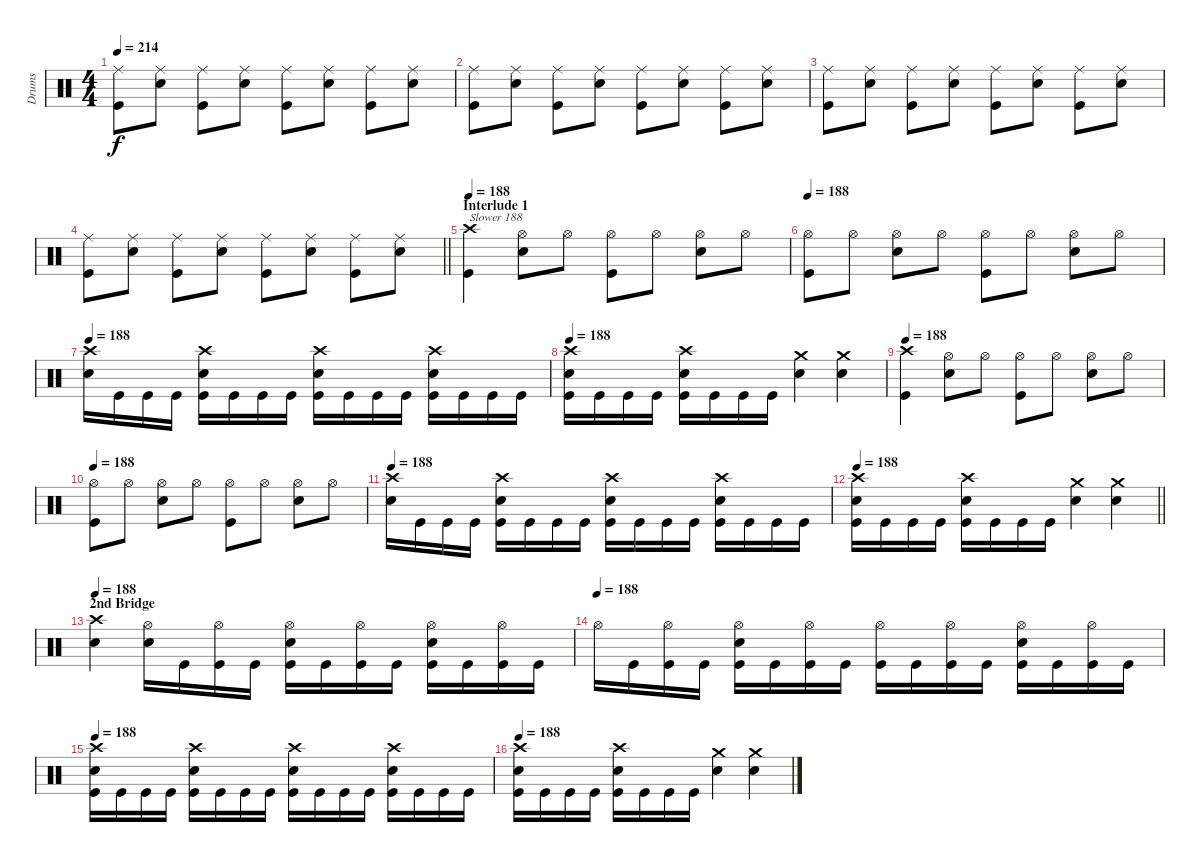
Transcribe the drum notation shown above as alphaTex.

\track ("Drums" "Drums") {instrument percussion}
\staff {score}
\articulation defaults
\ts (4 4)
\tempo 214
\clef neutral
\ks c
("Ride (middle)" "Kick (hit)").8{dy f} ("Ride (middle)" "Snare (hit) 2").8 ("Ride (middle)" "Kick (hit)").8 ("Ride (middle)" "Snare (hit) 2").8 ("Ride (middle)" "Kick (hit)").8 ("Ride (middle)" "Snare (hit) 2").8 ("Ride (middle)" "Kick (hit)").8 ("Ride (middle)" "Snare (hit) 2").8 |
("Ride (middle)" "Kick (hit)").8 ("Ride (middle)" "Snare (hit) 2").8 ("Ride (middle)" "Kick (hit)").8 ("Ride (middle)" "Snare (hit) 2").8 ("Ride (middle)" "Kick (hit)").8 ("Ride (middle)" "Snare (hit) 2").8 ("Ride (middle)" "Kick (hit)").8 ("Ride (middle)" "Snare (hit) 2").8 |
("Ride (middle)" "Kick (hit)").8 ("Ride (middle)" "Snare (hit) 2").8 ("Ride (middle)" "Kick (hit)").8 ("Ride (middle)" "Snare (hit) 2").8 ("Ride (middle)" "Kick (hit)").8 ("Ride (middle)" "Snare (hit) 2").8 ("Ride (middle)" "Kick (hit)").8 ("Ride (middle)" "Snare (hit) 2").8 |
\barLineRight lightlight
("Ride (middle)" "Kick (hit)").8 ("Ride (middle)" "Snare (hit) 2").8 ("Ride (middle)" "Kick (hit)").8 ("Ride (middle)" "Snare (hit) 2").8 ("Ride (middle)" "Kick (hit)").8 ("Ride (middle)" "Snare (hit) 2").8 ("Ride (middle)" "Kick (hit)").8 ("Ride (middle)" "Snare (hit) 2").8 |
\section ("" "Interlude 1")
\tempo 188
("Crash high (hit)" "Kick (hit)").4{txt "Slower 188"} ("Hi-Hat (open)" "Snare (hit) 2").8 "Hi-Hat (open)".8 ("Hi-Hat (open)" "Kick (hit)").8 "Hi-Hat (open)".8 ("Hi-Hat (open)" "Snare (hit) 2").8 "Hi-Hat (open)".8 |
\tempo 188
("Hi-Hat (open)" "Kick (hit)").8 "Hi-Hat (open)".8 ("Hi-Hat (open)" "Snare (hit) 2").8 "Hi-Hat (open)".8 ("Hi-Hat (open)" "Kick (hit)").8 "Hi-Hat (open)".8 ("Hi-Hat (open)" "Snare (hit) 2").8 "Hi-Hat (open)".8 |
\tempo 188
("Crash high (hit)" "Snare (hit) 2").16 "Kick (hit)".16 "Kick (hit)".16 "Kick (hit)".16 ("Crash high (hit)" "Snare (hit) 2" "Kick (hit)").16 "Kick (hit)".16 "Kick (hit)".16 "Kick (hit)".16 ("Crash high (hit)" "Snare (hit) 2" "Kick (hit)").16 "Kick (hit)".16 "Kick (hit)".16 "Kick (hit)".16 ("Crash high (hit)" "Snare (hit) 2" "Kick (hit)").16 "Kick (hit)".16 "Kick (hit)".16 "Kick (hit)".16 |
\tempo 188
("Crash high (hit)" "Snare (hit) 2" "Kick (hit)").16 "Kick (hit)".16 "Kick (hit)".16 "Kick (hit)".16 ("Crash high (hit)" "Snare (hit) 2" "Kick (hit)").16 "Kick (hit)".16 "Kick (hit)".16 "Kick (hit)".16 ("Crash medium (hit)" "Snare (hit) 2").4 ("Crash medium (hit)" "Snare (hit) 2").4 |
\tempo 188
("Crash high (hit)" "Kick (hit)").4 ("Hi-Hat (open)" "Snare (hit) 2").8 "Hi-Hat (open)".8 ("Hi-Hat (open)" "Kick (hit)").8 "Hi-Hat (open)".8 ("Hi-Hat (open)" "Snare (hit) 2").8 "Hi-Hat (open)".8 |
\tempo 188
("Hi-Hat (open)" "Kick (hit)").8 "Hi-Hat (open)".8 ("Hi-Hat (open)" "Snare (hit) 2").8 "Hi-Hat (open)".8 ("Hi-Hat (open)" "Kick (hit)").8 "Hi-Hat (open)".8 ("Hi-Hat (open)" "Snare (hit) 2").8 "Hi-Hat (open)".8 |
\tempo 188
("Crash high (hit)" "Snare (hit) 2").16 "Kick (hit)".16 "Kick (hit)".16 "Kick (hit)".16 ("Crash high (hit)" "Snare (hit) 2" "Kick (hit)").16 "Kick (hit)".16 "Kick (hit)".16 "Kick (hit)".16 ("Crash high (hit)" "Snare (hit) 2" "Kick (hit)").16 "Kick (hit)".16 "Kick (hit)".16 "Kick (hit)".16 ("Crash high (hit)" "Snare (hit) 2" "Kick (hit)").16 "Kick (hit)".16 "Kick (hit)".16 "Kick (hit)".16 |
\tempo 188
\barLineRight lightlight
("Crash high (hit)" "Snare (hit) 2" "Kick (hit)").16 "Kick (hit)".16 "Kick (hit)".16 "Kick (hit)".16 ("Crash high (hit)" "Snare (hit) 2" "Kick (hit)").16 "Kick (hit)".16 "Kick (hit)".16 "Kick (hit)".16 ("Crash medium (hit)" "Snare (hit) 2").4 ("Crash medium (hit)" "Snare (hit) 2").4 |
\section ("" "2nd Bridge")
\tempo 188
("Crash high (hit)" "Snare (hit) 2").4 ("Hi-Hat (open)" "Snare (hit) 2").16 "Kick (hit)".16 ("Hi-Hat (open)" "Kick (hit)").16 "Kick (hit)".16 ("Hi-Hat (open)" "Snare (hit) 2" "Kick (hit)").16 "Kick (hit)".16 ("Hi-Hat (open)" "Kick (hit)").16 "Kick (hit)".16 ("Hi-Hat (open)" "Snare (hit) 2" "Kick (hit)").16 "Kick (hit)".16 ("Hi-Hat (open)" "Kick (hit)").16 "Kick (hit)".16 |
\tempo (188)
"Hi-Hat (open)".16 "Kick (hit)".16 ("Hi-Hat (open)" "Kick (hit)").16 "Kick (hit)".16 ("Hi-Hat (open)" "Snare (hit) 2" "Kick (hit)").16 "Kick (hit)".16 ("Hi-Hat (open)" "Kick (hit)").16 "Kick (hit)".16 ("Hi-Hat (open)" "Kick (hit)").16 "Kick (hit)".16 ("Hi-Hat (open)" "Kick (hit)").16 "Kick (hit)".16 ("Hi-Hat (open)" "Snare (hit) 2" "Kick (hit)").16 "Kick (hit)".16 ("Hi-Hat (open)" "Kick (hit)").16 "Kick (hit)".16 |
\tempo 188
("Crash high (hit)" "Snare (hit) 2" "Kick (hit)").16 "Kick (hit)".16 "Kick (hit)".16 "Kick (hit)".16 ("Crash high (hit)" "Snare (hit) 2" "Kick (hit)").16 "Kick (hit)".16 "Kick (hit)".16 "Kick (hit)".16 ("Crash high (hit)" "Snare (hit) 2" "Kick (hit)").16 "Kick (hit)".16 "Kick (hit)".16 "Kick (hit)".16 ("Crash high (hit)" "Snare (hit) 2" "Kick (hit)").16 "Kick (hit)".16 "Kick (hit)".16 "Kick (hit)".16 |
\tempo 188
("Crash high (hit)" "Snare (hit) 2" "Kick (hit)").16 "Kick (hit)".16 "Kick (hit)".16 "Kick (hit)".16 ("Crash high (hit)" "Snare (hit) 2" "Kick (hit)").16 "Kick (hit)".16 "Kick (hit)".16 "Kick (hit)".16 ("Crash medium (hit)" "Snare (hit) 2").4 ("Crash medium (hit)" "Snare (hit) 2").4
